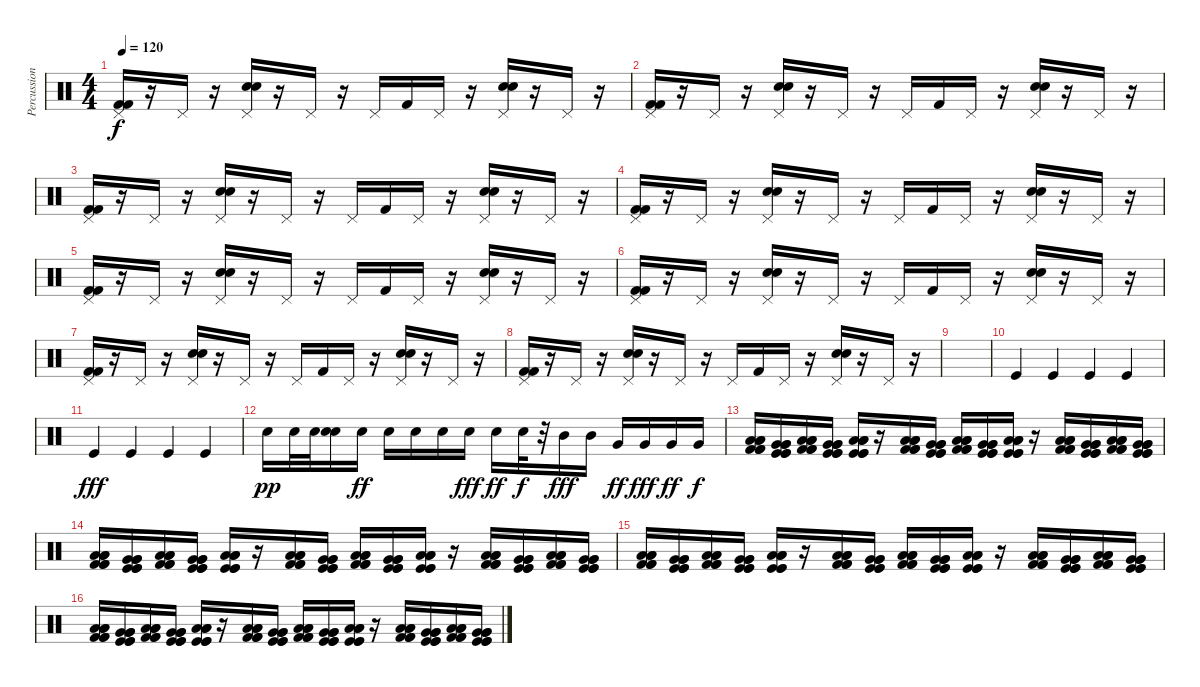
\track ("Percussion" "Percussion") {instrument percussion}
\staff {score}
\articulation defaults
\ts (4 4)
\tempo 120
\clef neutral
\ks c
("Pedal Hi-Hat (hit)" "Kick (hit) 2" "Kick (hit) 2").16{dy f} r.16 "Pedal Hi-Hat (hit)".16 r.16 ("Pedal Hi-Hat (hit)" "Electric Snare (hit)" "Electric Snare (hit)").16 r.16 "Pedal Hi-Hat (hit)".16 r.16 "Pedal Hi-Hat (hit)".16 "Kick (hit) 2".16 "Pedal Hi-Hat (hit)".16 r.16 ("Pedal Hi-Hat (hit)" "Electric Snare (hit)" "Electric Snare (hit)").16 r.16 "Pedal Hi-Hat (hit)".16 r.16 |
("Pedal Hi-Hat (hit)" "Kick (hit) 2" "Kick (hit) 2").16 r.16 "Pedal Hi-Hat (hit)".16 r.16 ("Pedal Hi-Hat (hit)" "Electric Snare (hit)" "Electric Snare (hit)").16 r.16 "Pedal Hi-Hat (hit)".16 r.16 "Pedal Hi-Hat (hit)".16 "Kick (hit) 2".16 "Pedal Hi-Hat (hit)".16 r.16 ("Pedal Hi-Hat (hit)" "Electric Snare (hit)" "Electric Snare (hit)").16 r.16 "Pedal Hi-Hat (hit)".16 r.16 |
("Pedal Hi-Hat (hit)" "Kick (hit) 2" "Kick (hit) 2").16 r.16 "Pedal Hi-Hat (hit)".16 r.16 ("Pedal Hi-Hat (hit)" "Electric Snare (hit)" "Electric Snare (hit)").16 r.16 "Pedal Hi-Hat (hit)".16 r.16 "Pedal Hi-Hat (hit)".16 "Kick (hit) 2".16 "Pedal Hi-Hat (hit)".16 r.16 ("Pedal Hi-Hat (hit)" "Electric Snare (hit)" "Electric Snare (hit)").16 r.16 "Pedal Hi-Hat (hit)".16 r.16 |
("Pedal Hi-Hat (hit)" "Kick (hit) 2" "Kick (hit) 2").16 r.16 "Pedal Hi-Hat (hit)".16 r.16 ("Pedal Hi-Hat (hit)" "Electric Snare (hit)" "Electric Snare (hit)").16 r.16 "Pedal Hi-Hat (hit)".16 r.16 "Pedal Hi-Hat (hit)".16 "Kick (hit) 2".16 "Pedal Hi-Hat (hit)".16 r.16 ("Pedal Hi-Hat (hit)" "Electric Snare (hit)" "Electric Snare (hit)").16 r.16 "Pedal Hi-Hat (hit)".16 r.16 |
("Pedal Hi-Hat (hit)" "Kick (hit) 2" "Kick (hit) 2").16 r.16 "Pedal Hi-Hat (hit)".16 r.16 ("Pedal Hi-Hat (hit)" "Electric Snare (hit)" "Electric Snare (hit)").16 r.16 "Pedal Hi-Hat (hit)".16 r.16 "Pedal Hi-Hat (hit)".16 "Kick (hit) 2".16 "Pedal Hi-Hat (hit)".16 r.16 ("Pedal Hi-Hat (hit)" "Electric Snare (hit)" "Electric Snare (hit)").16 r.16 "Pedal Hi-Hat (hit)".16 r.16 |
("Pedal Hi-Hat (hit)" "Kick (hit) 2" "Kick (hit) 2").16 r.16 "Pedal Hi-Hat (hit)".16 r.16 ("Pedal Hi-Hat (hit)" "Electric Snare (hit)" "Electric Snare (hit)").16 r.16 "Pedal Hi-Hat (hit)".16 r.16 "Pedal Hi-Hat (hit)".16 "Kick (hit) 2".16 "Pedal Hi-Hat (hit)".16 r.16 ("Pedal Hi-Hat (hit)" "Electric Snare (hit)" "Electric Snare (hit)").16 r.16 "Pedal Hi-Hat (hit)".16 r.16 |
("Pedal Hi-Hat (hit)" "Kick (hit) 2" "Kick (hit) 2").16 r.16 "Pedal Hi-Hat (hit)".16 r.16 ("Pedal Hi-Hat (hit)" "Electric Snare (hit)" "Electric Snare (hit)").16 r.16 "Pedal Hi-Hat (hit)".16 r.16 "Pedal Hi-Hat (hit)".16 "Kick (hit) 2".16 "Pedal Hi-Hat (hit)".16 r.16 ("Pedal Hi-Hat (hit)" "Electric Snare (hit)" "Electric Snare (hit)").16 r.16 "Pedal Hi-Hat (hit)".16 r.16 |
("Pedal Hi-Hat (hit)" "Kick (hit) 2" "Kick (hit) 2").16 r.16 "Pedal Hi-Hat (hit)".16 r.16 ("Pedal Hi-Hat (hit)" "Electric Snare (hit)" "Electric Snare (hit)").16 r.16 "Pedal Hi-Hat (hit)".16 r.16 "Pedal Hi-Hat (hit)".16 "Kick (hit) 2".16 "Pedal Hi-Hat (hit)".16 r.16 ("Pedal Hi-Hat (hit)" "Electric Snare (hit)" "Electric Snare (hit)").16 r.16 "Pedal Hi-Hat (hit)".16 r.16 |
|
"Kick (hit)".4 "Kick (hit)".4 "Kick (hit)".4 "Kick (hit)".4 |
"Kick (hit)".4{dy fff} "Kick (hit)".4 "Kick (hit)".4 "Kick (hit)".4 |
"Electric Snare (hit)".16{dy pp} "Electric Snare (hit)".32 "Electric Snare (hit)".32 ("Electric Snare (hit)" "Electric Snare (hit)").16 "Electric Snare (hit)".16{dy ff} "Electric Snare (hit)".16 "Electric Snare (hit)".16 "Electric Snare (hit)".16 "Electric Snare (hit)".16{dy fff} "Electric Snare (hit)".16{dy ff} "Electric Snare (hit)".32{dy f} r.32 "Mid Tom (hit)".16{dy fff} "Mid Tom (hit)".16 "Very Low Tom (hit)".16{dy ff} "Very Low Tom (hit)".16{dy fff} "Very Low Tom (hit)".16{dy ff} "Very Low Tom (hit)".16{dy f} |
("Low Floor Tom (hit)" "Low Floor Tom (hit)" "Low Floor Tom (hit)" "Kick (hit) 2" "Kick (hit) 2" "Kick (hit) 2").16 ("Very Low Tom (hit)" "Very Low Tom (hit)" "Very Low Tom (hit)" "Kick (hit)" "Kick (hit)" "Kick (hit)").16 ("Low Floor Tom (hit)" "Low Floor Tom (hit)" "Low Floor Tom (hit)" "Kick (hit) 2" "Kick (hit) 2" "Kick (hit) 2").16 ("Very Low Tom (hit)" "Very Low Tom (hit)" "Very Low Tom (hit)" "Kick (hit)" "Kick (hit)" "Kick (hit)").16 ("Low Floor Tom (hit)" "Low Floor Tom (hit)" "Low Floor Tom (hit)" "Kick (hit)" "Kick (hit)" "Kick (hit)").16 r.16 ("Low Floor Tom (hit)" "Low Floor Tom (hit)" "Low Floor Tom (hit)" "Kick (hit) 2" "Kick (hit) 2" "Kick (hit) 2").16 ("Very Low Tom (hit)" "Very Low Tom (hit)" "Very Low Tom (hit)" "Kick (hit)" "Kick (hit)" "Kick (hit)").16 ("Low Floor Tom (hit)" "Low Floor Tom (hit)" "Low Floor Tom (hit)" "Kick (hit) 2" "Kick (hit) 2" "Kick (hit) 2").16 ("Very Low Tom (hit)" "Very Low Tom (hit)" "Very Low Tom (hit)" "Kick (hit)" "Kick (hit)" "Kick (hit)").16 ("Low Floor Tom (hit)" "Low Floor Tom (hit)" "Low Floor Tom (hit)" "Kick (hit)" "Kick (hit)" "Kick (hit)").16 r.16 ("Low Floor Tom (hit)" "Low Floor Tom (hit)" "Low Floor Tom (hit)" "Kick (hit) 2" "Kick (hit) 2" "Kick (hit) 2").16 ("Very Low Tom (hit)" "Very Low Tom (hit)" "Very Low Tom (hit)" "Kick (hit)" "Kick (hit)" "Kick (hit)").16 ("Low Floor Tom (hit)" "Low Floor Tom (hit)" "Low Floor Tom (hit)" "Kick (hit) 2" "Kick (hit) 2" "Kick (hit) 2").16 ("Very Low Tom (hit)" "Very Low Tom (hit)" "Very Low Tom (hit)" "Kick (hit)" "Kick (hit)" "Kick (hit)").16 |
("Low Floor Tom (hit)" "Low Floor Tom (hit)" "Low Floor Tom (hit)" "Kick (hit) 2" "Kick (hit) 2" "Kick (hit) 2").16 ("Very Low Tom (hit)" "Very Low Tom (hit)" "Very Low Tom (hit)" "Kick (hit)" "Kick (hit)" "Kick (hit)").16 ("Low Floor Tom (hit)" "Low Floor Tom (hit)" "Low Floor Tom (hit)" "Kick (hit) 2" "Kick (hit) 2" "Kick (hit) 2").16 ("Very Low Tom (hit)" "Very Low Tom (hit)" "Very Low Tom (hit)" "Kick (hit)" "Kick (hit)" "Kick (hit)").16 ("Low Floor Tom (hit)" "Low Floor Tom (hit)" "Low Floor Tom (hit)" "Kick (hit)" "Kick (hit)" "Kick (hit)").16 r.16 ("Low Floor Tom (hit)" "Low Floor Tom (hit)" "Low Floor Tom (hit)" "Kick (hit) 2" "Kick (hit) 2" "Kick (hit) 2").16 ("Very Low Tom (hit)" "Very Low Tom (hit)" "Very Low Tom (hit)" "Kick (hit)" "Kick (hit)" "Kick (hit)").16 ("Low Floor Tom (hit)" "Low Floor Tom (hit)" "Low Floor Tom (hit)" "Kick (hit) 2" "Kick (hit) 2" "Kick (hit) 2").16 ("Very Low Tom (hit)" "Very Low Tom (hit)" "Very Low Tom (hit)" "Kick (hit)" "Kick (hit)" "Kick (hit)").16 ("Low Floor Tom (hit)" "Low Floor Tom (hit)" "Low Floor Tom (hit)" "Kick (hit)" "Kick (hit)" "Kick (hit)").16 r.16 ("Low Floor Tom (hit)" "Low Floor Tom (hit)" "Low Floor Tom (hit)" "Kick (hit) 2" "Kick (hit) 2" "Kick (hit) 2").16 ("Very Low Tom (hit)" "Very Low Tom (hit)" "Very Low Tom (hit)" "Kick (hit)" "Kick (hit)" "Kick (hit)").16 ("Low Floor Tom (hit)" "Low Floor Tom (hit)" "Low Floor Tom (hit)" "Kick (hit) 2" "Kick (hit) 2" "Kick (hit) 2").16 ("Very Low Tom (hit)" "Very Low Tom (hit)" "Very Low Tom (hit)" "Kick (hit)" "Kick (hit)" "Kick (hit)").16 |
("Low Floor Tom (hit)" "Low Floor Tom (hit)" "Low Floor Tom (hit)" "Kick (hit) 2" "Kick (hit) 2" "Kick (hit) 2").16 ("Very Low Tom (hit)" "Very Low Tom (hit)" "Very Low Tom (hit)" "Kick (hit)" "Kick (hit)" "Kick (hit)").16 ("Low Floor Tom (hit)" "Low Floor Tom (hit)" "Low Floor Tom (hit)" "Kick (hit) 2" "Kick (hit) 2" "Kick (hit) 2").16 ("Very Low Tom (hit)" "Very Low Tom (hit)" "Very Low Tom (hit)" "Kick (hit)" "Kick (hit)" "Kick (hit)").16 ("Low Floor Tom (hit)" "Low Floor Tom (hit)" "Low Floor Tom (hit)" "Kick (hit)" "Kick (hit)" "Kick (hit)").16 r.16 ("Low Floor Tom (hit)" "Low Floor Tom (hit)" "Low Floor Tom (hit)" "Kick (hit) 2" "Kick (hit) 2" "Kick (hit) 2").16 ("Very Low Tom (hit)" "Very Low Tom (hit)" "Very Low Tom (hit)" "Kick (hit)" "Kick (hit)" "Kick (hit)").16 ("Low Floor Tom (hit)" "Low Floor Tom (hit)" "Low Floor Tom (hit)" "Kick (hit) 2" "Kick (hit) 2" "Kick (hit) 2").16 ("Very Low Tom (hit)" "Very Low Tom (hit)" "Very Low Tom (hit)" "Kick (hit)" "Kick (hit)" "Kick (hit)").16 ("Low Floor Tom (hit)" "Low Floor Tom (hit)" "Low Floor Tom (hit)" "Kick (hit)" "Kick (hit)" "Kick (hit)").16 r.16 ("Low Floor Tom (hit)" "Low Floor Tom (hit)" "Low Floor Tom (hit)" "Kick (hit) 2" "Kick (hit) 2" "Kick (hit) 2").16 ("Very Low Tom (hit)" "Very Low Tom (hit)" "Very Low Tom (hit)" "Kick (hit)" "Kick (hit)" "Kick (hit)").16 ("Low Floor Tom (hit)" "Low Floor Tom (hit)" "Low Floor Tom (hit)" "Kick (hit) 2" "Kick (hit) 2" "Kick (hit) 2").16 ("Very Low Tom (hit)" "Very Low Tom (hit)" "Very Low Tom (hit)" "Kick (hit)" "Kick (hit)" "Kick (hit)").16 |
("Low Floor Tom (hit)" "Low Floor Tom (hit)" "Low Floor Tom (hit)" "Kick (hit) 2" "Kick (hit) 2" "Kick (hit) 2").16 ("Very Low Tom (hit)" "Very Low Tom (hit)" "Very Low Tom (hit)" "Kick (hit)" "Kick (hit)" "Kick (hit)").16 ("Low Floor Tom (hit)" "Low Floor Tom (hit)" "Low Floor Tom (hit)" "Kick (hit) 2" "Kick (hit) 2" "Kick (hit) 2").16 ("Very Low Tom (hit)" "Very Low Tom (hit)" "Very Low Tom (hit)" "Kick (hit)" "Kick (hit)" "Kick (hit)").16 ("Low Floor Tom (hit)" "Low Floor Tom (hit)" "Low Floor Tom (hit)" "Kick (hit)" "Kick (hit)" "Kick (hit)").16 r.16 ("Low Floor Tom (hit)" "Low Floor Tom (hit)" "Low Floor Tom (hit)" "Kick (hit) 2" "Kick (hit) 2" "Kick (hit) 2").16 ("Very Low Tom (hit)" "Very Low Tom (hit)" "Very Low Tom (hit)" "Kick (hit)" "Kick (hit)" "Kick (hit)").16 ("Low Floor Tom (hit)" "Low Floor Tom (hit)" "Low Floor Tom (hit)" "Kick (hit) 2" "Kick (hit) 2" "Kick (hit) 2").16 ("Very Low Tom (hit)" "Very Low Tom (hit)" "Very Low Tom (hit)" "Kick (hit)" "Kick (hit)" "Kick (hit)").16 ("Low Floor Tom (hit)" "Low Floor Tom (hit)" "Low Floor Tom (hit)" "Kick (hit)" "Kick (hit)" "Kick (hit)").16 r.16 ("Low Floor Tom (hit)" "Low Floor Tom (hit)" "Low Floor Tom (hit)" "Kick (hit) 2" "Kick (hit) 2" "Kick (hit) 2").16 ("Very Low Tom (hit)" "Very Low Tom (hit)" "Very Low Tom (hit)" "Kick (hit)" "Kick (hit)" "Kick (hit)").16 ("Low Floor Tom (hit)" "Low Floor Tom (hit)" "Low Floor Tom (hit)" "Kick (hit) 2" "Kick (hit) 2" "Kick (hit) 2").16 ("Very Low Tom (hit)" "Very Low Tom (hit)" "Very Low Tom (hit)" "Kick (hit)" "Kick (hit)" "Kick (hit)").16
